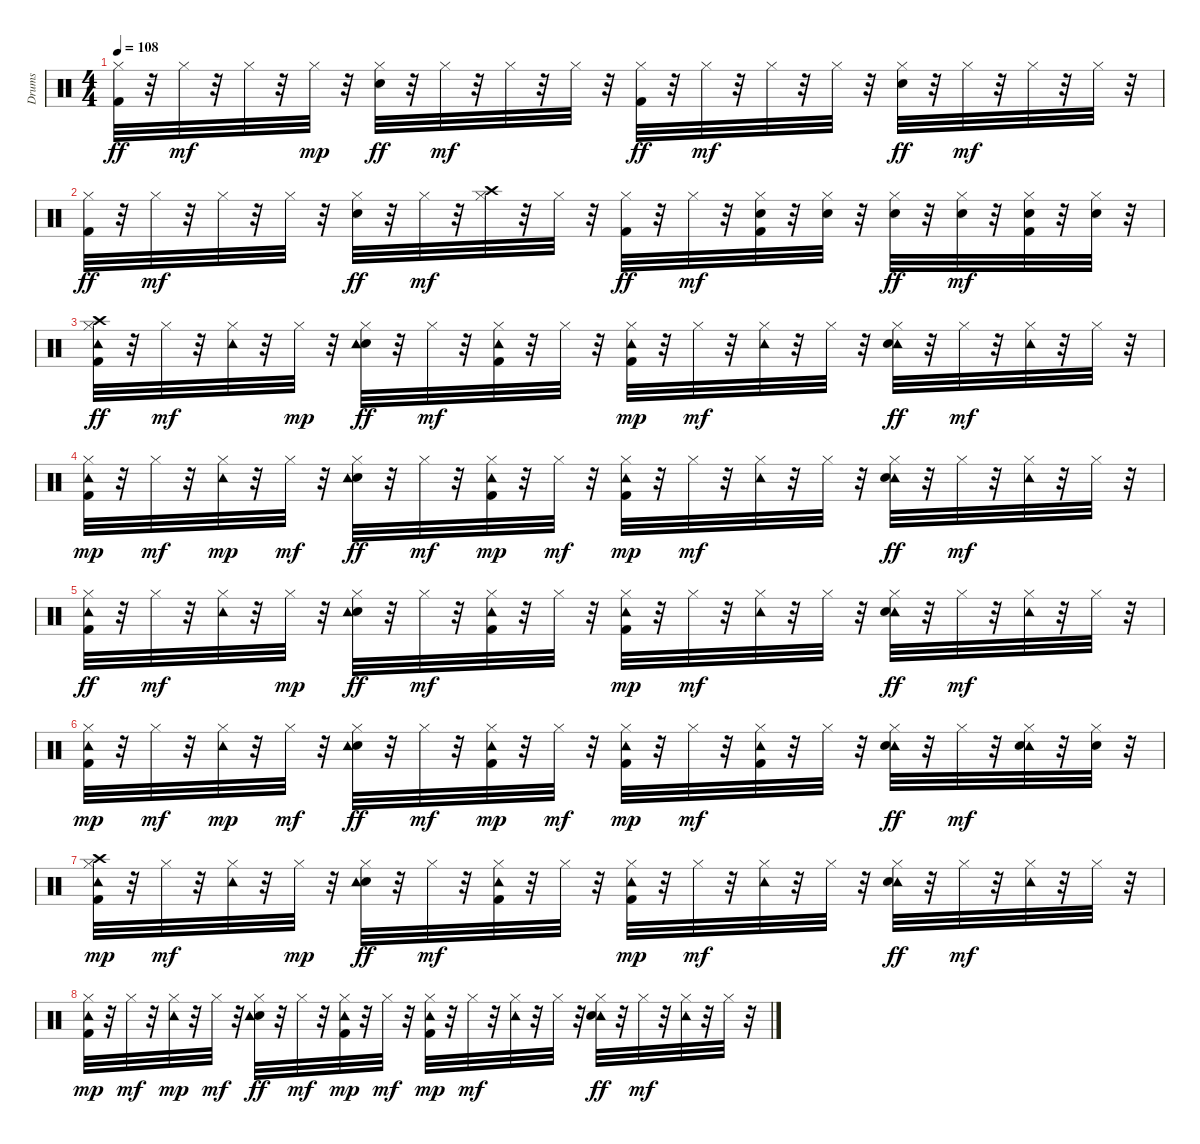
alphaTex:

\track ("Drums               " "Drums     ") {instrument percussion}
\staff {score}
\articulation defaults
\ts (4 4)
\tempo 108
\clef neutral
\ks c
("Kick (hit) 2" "Hi-Hat (closed)").32{dy ff} r.32 "Hi-Hat (closed)".32{dy mf} r.32 "Hi-Hat (closed)".32 r.32 "Hi-Hat (closed)".32{dy mp} r.32 ("Snare (hit) 2" "Hi-Hat (closed)").32{dy ff} r.32 "Hi-Hat (closed)".32{dy mf} r.32 "Hi-Hat (closed)".32 r.32 "Hi-Hat (closed)".32 r.32 ("Kick (hit) 2" "Hi-Hat (closed)").32{dy ff} r.32 "Hi-Hat (closed)".32{dy mf} r.32 "Hi-Hat (closed)".32 r.32 "Hi-Hat (closed)".32 r.32 ("Snare (hit) 2" "Hi-Hat (closed)").32{dy ff} r.32 "Hi-Hat (closed)".32{dy mf} r.32 "Hi-Hat (closed)".32 r.32 "Hi-Hat (closed)".32 r.32 |
("Kick (hit) 2" "Hi-Hat (closed)").32{dy ff} r.32 "Hi-Hat (closed)".32{dy mf} r.32 "Hi-Hat (closed)".32 r.32 "Hi-Hat (closed)".32 r.32 ("Snare (hit) 2" "Hi-Hat (closed)").32{dy ff} r.32 "Hi-Hat (closed)".32{dy mf} r.32 ("Hi-Hat (closed)" "Crash high (hit)").32 r.32 "Hi-Hat (closed)".32 r.32 ("Kick (hit) 2" "Hi-Hat (closed)").32{dy ff} r.32 "Hi-Hat (closed)".32{dy mf} r.32 ("Kick (hit) 2" "Snare (hit) 2" "Hi-Hat (closed)").32 r.32 ("Snare (hit) 2" "Hi-Hat (closed)").32 r.32 ("Hi-Hat (closed)" "Snare (hit) 2").32{dy ff} r.32 ("Snare (hit) 2" "Hi-Hat (closed)").32{dy mf} r.32 ("Kick (hit) 2" "Snare (hit) 2" "Hi-Hat (closed)").32 r.32 ("Snare (hit) 2" "Hi-Hat (closed)").32 r.32 |
("Kick (hit) 2" "Crash high (hit)" "Tambourine (hit)" "Hi-Hat (closed)").32{dy ff} r.32 "Hi-Hat (closed)".32{dy mf} r.32 ("Tambourine (hit)" "Hi-Hat (closed)").32 r.32 "Hi-Hat (closed)".32{dy mp} r.32 ("Snare (hit) 2" "Hi-Hat (closed)" "Tambourine (hit)").32{dy ff} r.32 "Hi-Hat (closed)".32{dy mf} r.32 ("Tambourine (hit)" "Kick (hit) 2" "Hi-Hat (closed)").32 r.32 "Hi-Hat (closed)".32 r.32 ("Kick (hit) 2" "Hi-Hat (closed)" "Tambourine (hit)").32{dy mp} r.32 "Hi-Hat (closed)".32{dy mf} r.32 ("Tambourine (hit)" "Hi-Hat (closed)").32 r.32 "Hi-Hat (closed)".32 r.32 ("Tambourine (hit)" "Snare (hit) 2" "Hi-Hat (closed)").32{dy ff} r.32 "Hi-Hat (closed)".32{dy mf} r.32 ("Tambourine (hit)" "Hi-Hat (closed)").32 r.32 "Hi-Hat (closed)".32 r.32 |
("Kick (hit) 2" "Hi-Hat (closed)" "Tambourine (hit)").32{dy mp} r.32 "Hi-Hat (closed)".32{dy mf} r.32 ("Hi-Hat (closed)" "Tambourine (hit)").32{dy mp} r.32 "Hi-Hat (closed)".32{dy mf} r.32 ("Hi-Hat (closed)" "Snare (hit) 2" "Tambourine (hit)").32{dy ff} r.32 "Hi-Hat (closed)".32{dy mf} r.32 ("Kick (hit) 2" "Hi-Hat (closed)" "Tambourine (hit)").32{dy mp} r.32 "Hi-Hat (closed)".32{dy mf} r.32 ("Kick (hit) 2" "Hi-Hat (closed)" "Tambourine (hit)").32{dy mp} r.32 "Hi-Hat (closed)".32{dy mf} r.32 ("Tambourine (hit)" "Hi-Hat (closed)").32 r.32 "Hi-Hat (closed)".32 r.32 ("Tambourine (hit)" "Snare (hit) 2" "Hi-Hat (closed)").32{dy ff} r.32 "Hi-Hat (closed)".32{dy mf} r.32 ("Tambourine (hit)" "Hi-Hat (closed)").32 r.32 "Hi-Hat (closed)".32 r.32 |
("Kick (hit) 2" "Tambourine (hit)" "Hi-Hat (closed)").32{dy ff} r.32 "Hi-Hat (closed)".32{dy mf} r.32 ("Tambourine (hit)" "Hi-Hat (closed)").32 r.32 "Hi-Hat (closed)".32{dy mp} r.32 ("Snare (hit) 2" "Hi-Hat (closed)" "Tambourine (hit)").32{dy ff} r.32 "Hi-Hat (closed)".32{dy mf} r.32 ("Tambourine (hit)" "Kick (hit) 2" "Hi-Hat (closed)").32 r.32 "Hi-Hat (closed)".32 r.32 ("Kick (hit) 2" "Hi-Hat (closed)" "Tambourine (hit)").32{dy mp} r.32 "Hi-Hat (closed)".32{dy mf} r.32 ("Tambourine (hit)" "Hi-Hat (closed)").32 r.32 "Hi-Hat (closed)".32 r.32 ("Tambourine (hit)" "Snare (hit) 2" "Hi-Hat (closed)").32{dy ff} r.32 "Hi-Hat (closed)".32{dy mf} r.32 ("Tambourine (hit)" "Hi-Hat (closed)").32 r.32 "Hi-Hat (closed)".32 r.32 |
("Kick (hit) 2" "Hi-Hat (closed)" "Tambourine (hit)").32{dy mp} r.32 "Hi-Hat (closed)".32{dy mf} r.32 ("Hi-Hat (closed)" "Tambourine (hit)").32{dy mp} r.32 "Hi-Hat (closed)".32{dy mf} r.32 ("Snare (hit) 2" "Hi-Hat (closed)" "Tambourine (hit)").32{dy ff} r.32 "Hi-Hat (closed)".32{dy mf} r.32 ("Kick (hit) 2" "Hi-Hat (closed)" "Tambourine (hit)").32{dy mp} r.32 "Hi-Hat (closed)".32{dy mf} r.32 ("Kick (hit) 2" "Hi-Hat (closed)" "Tambourine (hit)").32{dy mp} r.32 "Hi-Hat (closed)".32{dy mf} r.32 ("Tambourine (hit)" "Kick (hit) 2" "Hi-Hat (closed)").32 r.32 "Hi-Hat (closed)".32 r.32 ("Tambourine (hit)" "Snare (hit) 2" "Hi-Hat (closed)").32{dy ff} r.32 "Hi-Hat (closed)".32{dy mf} r.32 ("Tambourine (hit)" "Snare (hit) 2" "Hi-Hat (closed)").32 r.32 ("Snare (hit) 2" "Hi-Hat (closed)").32 r.32 |
("Hi-Hat (closed)" "Kick (hit) 2" "Crash high (hit)" "Tambourine (hit)").32{dy mp} r.32 "Hi-Hat (closed)".32{dy mf} r.32 ("Tambourine (hit)" "Hi-Hat (closed)").32 r.32 "Hi-Hat (closed)".32{dy mp} r.32 ("Snare (hit) 2" "Hi-Hat (closed)" "Tambourine (hit)").32{dy ff} r.32 "Hi-Hat (closed)".32{dy mf} r.32 ("Tambourine (hit)" "Kick (hit) 2" "Hi-Hat (closed)").32 r.32 "Hi-Hat (closed)".32 r.32 ("Kick (hit) 2" "Hi-Hat (closed)" "Tambourine (hit)").32{dy mp} r.32 "Hi-Hat (closed)".32{dy mf} r.32 ("Tambourine (hit)" "Hi-Hat (closed)").32 r.32 "Hi-Hat (closed)".32 r.32 ("Tambourine (hit)" "Snare (hit) 2" "Hi-Hat (closed)").32{dy ff} r.32 "Hi-Hat (closed)".32{dy mf} r.32 ("Tambourine (hit)" "Hi-Hat (closed)").32 r.32 "Hi-Hat (closed)".32 r.32 |
("Kick (hit) 2" "Hi-Hat (closed)" "Tambourine (hit)").32{dy mp} r.32 "Hi-Hat (closed)".32{dy mf} r.32 ("Hi-Hat (closed)" "Tambourine (hit)").32{dy mp} r.32 "Hi-Hat (closed)".32{dy mf} r.32 ("Snare (hit) 2" "Hi-Hat (closed)" "Tambourine (hit)").32{dy ff} r.32 "Hi-Hat (closed)".32{dy mf} r.32 ("Hi-Hat (closed)" "Kick (hit) 2" "Tambourine (hit)").32{dy mp} r.32 "Hi-Hat (closed)".32{dy mf} r.32 ("Kick (hit) 2" "Hi-Hat (closed)" "Tambourine (hit)").32{dy mp} r.32 "Hi-Hat (closed)".32{dy mf} r.32 ("Tambourine (hit)" "Hi-Hat (closed)").32 r.32 "Hi-Hat (closed)".32 r.32 ("Tambourine (hit)" "Snare (hit) 2" "Hi-Hat (closed)").32{dy ff} r.32 "Hi-Hat (closed)".32{dy mf} r.32 ("Tambourine (hit)" "Hi-Hat (closed)").32 r.32 "Hi-Hat (closed)".32 r.32
